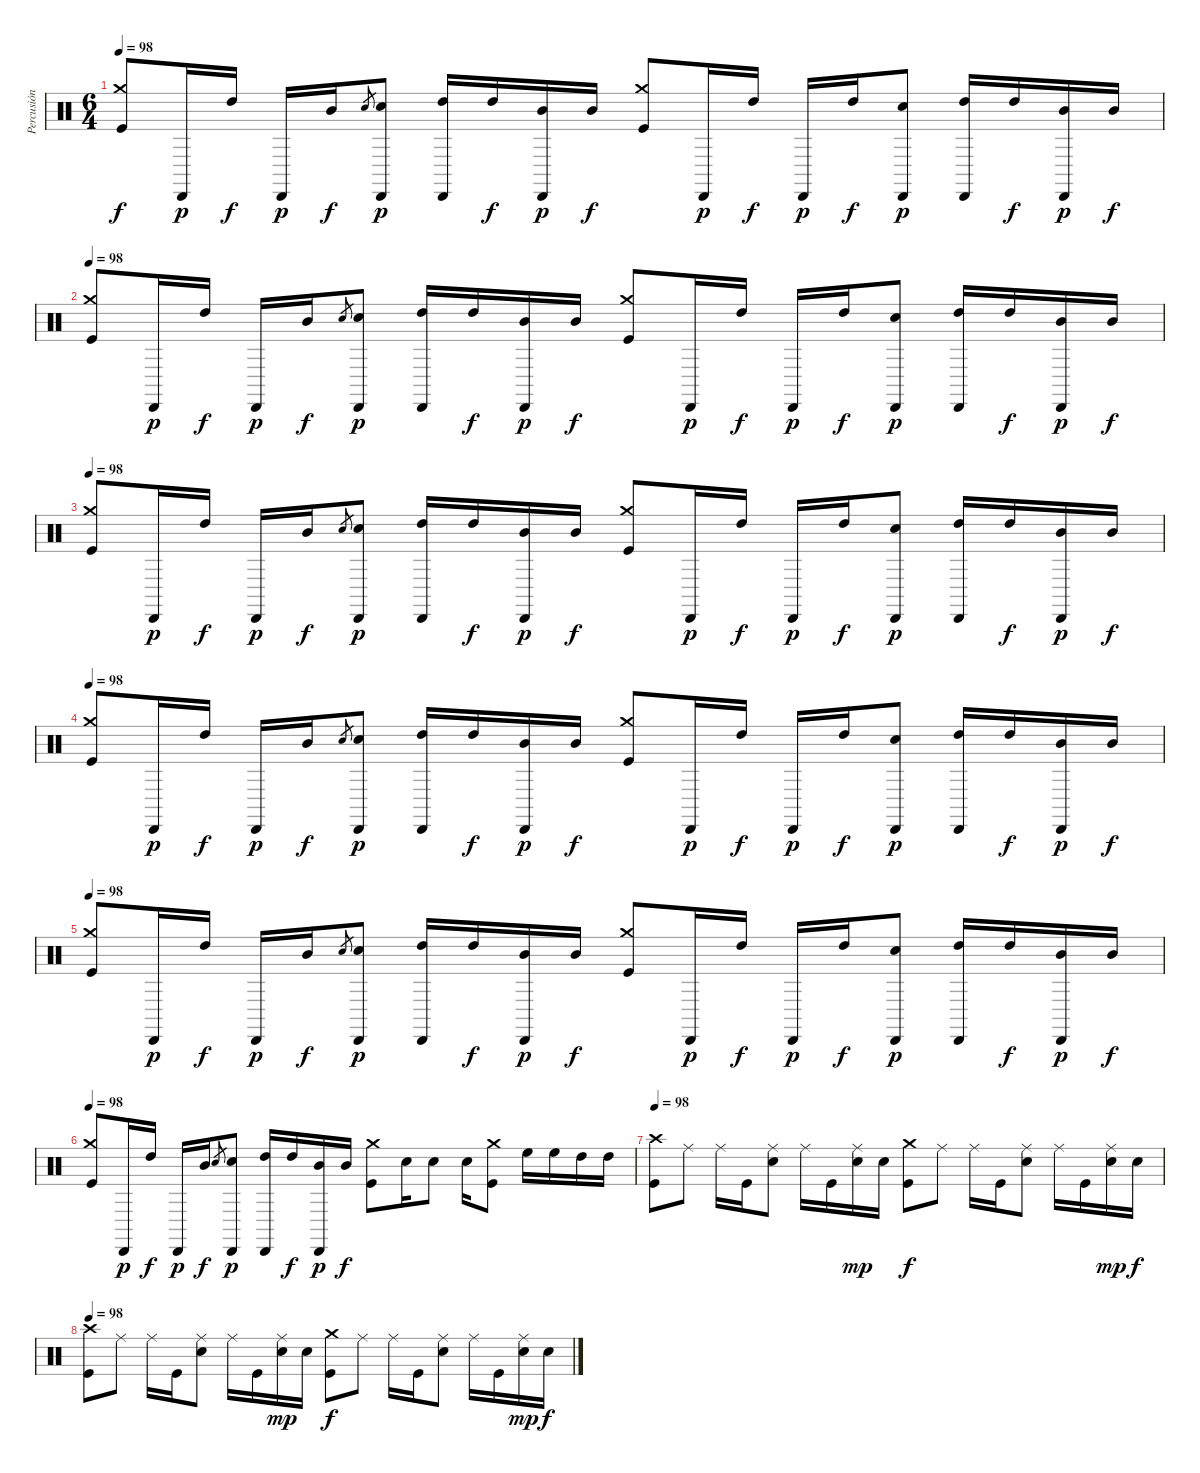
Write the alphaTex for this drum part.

\track ("Percusión" "Percusión") {instrument percussion}
\staff {score}
\articulation defaults
\ts (6 4)
\tempo 98
\clef neutral
\ks c
("Crash medium (hit)" "Kick (hit)").8{dy f} "Cabasa (hit)".16{dy p} "High Tom (hit)".16{dy f} "Cabasa (hit)".16{dy p} "Mid Tom (hit)".16{dy f} "Electric Snare (hit)".8{gr} ("Cabasa (hit)" "Electric Snare (hit)").8{dy p} ("Cabasa (hit)" "High Tom (hit)").16 "High Tom (hit)".16{dy f} ("Cabasa (hit)" "Mid Tom (hit)").16{dy p} "Mid Tom (hit)".16{dy f} ("Crash medium (hit)" "Kick (hit)").8 "Cabasa (hit)".16{dy p} "High Tom (hit)".16{dy f} "Cabasa (hit)".16{dy p} "High Tom (hit)".16{dy f} ("Cabasa (hit)" "Electric Snare (hit)").8{dy p} ("Cabasa (hit)" "High Tom (hit)").16 "High Tom (hit)".16{dy f} ("Cabasa (hit)" "Mid Tom (hit)").16{dy p} "Mid Tom (hit)".16{dy f} |
\tempo 98
("Crash medium (hit)" "Kick (hit)").8 "Cabasa (hit)".16{dy p} "High Tom (hit)".16{dy f} "Cabasa (hit)".16{dy p} "Mid Tom (hit)".16{dy f} "Electric Snare (hit)".8{gr} ("Cabasa (hit)" "Electric Snare (hit)").8{dy p} ("Cabasa (hit)" "High Tom (hit)").16 "High Tom (hit)".16{dy f} ("Cabasa (hit)" "Mid Tom (hit)").16{dy p} "Mid Tom (hit)".16{dy f} ("Crash medium (hit)" "Kick (hit)").8 "Cabasa (hit)".16{dy p} "High Tom (hit)".16{dy f} "Cabasa (hit)".16{dy p} "High Tom (hit)".16{dy f} ("Cabasa (hit)" "Electric Snare (hit)").8{dy p} ("Cabasa (hit)" "High Tom (hit)").16 "High Tom (hit)".16{dy f} ("Cabasa (hit)" "Mid Tom (hit)").16{dy p} "Mid Tom (hit)".16{dy f} |
\tempo 98
("Crash medium (hit)" "Kick (hit)").8 "Cabasa (hit)".16{dy p} "High Tom (hit)".16{dy f} "Cabasa (hit)".16{dy p} "Mid Tom (hit)".16{dy f} "Electric Snare (hit)".8{gr} ("Cabasa (hit)" "Electric Snare (hit)").8{dy p} ("Cabasa (hit)" "High Tom (hit)").16 "High Tom (hit)".16{dy f} ("Cabasa (hit)" "Mid Tom (hit)").16{dy p} "Mid Tom (hit)".16{dy f} ("Crash medium (hit)" "Kick (hit)").8 "Cabasa (hit)".16{dy p} "High Tom (hit)".16{dy f} "Cabasa (hit)".16{dy p} "High Tom (hit)".16{dy f} ("Cabasa (hit)" "Electric Snare (hit)").8{dy p} ("Cabasa (hit)" "High Tom (hit)").16 "High Tom (hit)".16{dy f} ("Cabasa (hit)" "Mid Tom (hit)").16{dy p} "Mid Tom (hit)".16{dy f} |
\tempo 98
("Crash medium (hit)" "Kick (hit)").8 "Cabasa (hit)".16{dy p} "High Tom (hit)".16{dy f} "Cabasa (hit)".16{dy p} "Mid Tom (hit)".16{dy f} "Electric Snare (hit)".8{gr} ("Cabasa (hit)" "Electric Snare (hit)").8{dy p} ("Cabasa (hit)" "High Tom (hit)").16 "High Tom (hit)".16{dy f} ("Cabasa (hit)" "Mid Tom (hit)").16{dy p} "Mid Tom (hit)".16{dy f} ("Crash medium (hit)" "Kick (hit)").8 "Cabasa (hit)".16{dy p} "High Tom (hit)".16{dy f} "Cabasa (hit)".16{dy p} "High Tom (hit)".16{dy f} ("Cabasa (hit)" "Electric Snare (hit)").8{dy p} ("Cabasa (hit)" "High Tom (hit)").16 "High Tom (hit)".16{dy f} ("Cabasa (hit)" "Mid Tom (hit)").16{dy p} "Mid Tom (hit)".16{dy f} |
\tempo 98
("Crash medium (hit)" "Kick (hit)").8 "Cabasa (hit)".16{dy p} "High Tom (hit)".16{dy f} "Cabasa (hit)".16{dy p} "Mid Tom (hit)".16{dy f} "Electric Snare (hit)".8{gr} ("Cabasa (hit)" "Electric Snare (hit)").8{dy p} ("Cabasa (hit)" "High Tom (hit)").16 "High Tom (hit)".16{dy f} ("Cabasa (hit)" "Mid Tom (hit)").16{dy p} "Mid Tom (hit)".16{dy f} ("Crash medium (hit)" "Kick (hit)").8 "Cabasa (hit)".16{dy p} "High Tom (hit)".16{dy f} "Cabasa (hit)".16{dy p} "High Tom (hit)".16{dy f} ("Cabasa (hit)" "Electric Snare (hit)").8{dy p} ("Cabasa (hit)" "High Tom (hit)").16 "High Tom (hit)".16{dy f} ("Cabasa (hit)" "Mid Tom (hit)").16{dy p} "Mid Tom (hit)".16{dy f} |
\tempo 98
("Crash medium (hit)" "Kick (hit)").8 "Cabasa (hit)".16{dy p} "High Tom (hit)".16{dy f} "Cabasa (hit)".16{dy p} "Mid Tom (hit)".16{dy f} "Electric Snare (hit)".8{gr} ("Cabasa (hit)" "Electric Snare (hit)").8{dy p} ("Cabasa (hit)" "High Tom (hit)").16 "High Tom (hit)".16{dy f} ("Cabasa (hit)" "Mid Tom (hit)").16{dy p} "Mid Tom (hit)".16{dy f} ("Crash medium (hit)" "Kick (hit)").8 "Electric Snare (hit)".16 "Electric Snare (hit)".8 "Electric Snare (hit)".16 ("Crash medium (hit)" "Kick (hit)").8 "High Floor Tom (hit)".16 "High Floor Tom (hit)".16 "High Tom (hit)".16 "High Tom (hit)".16 |
\tempo 98
("Crash high (hit)" "Kick (hit)").8 "Ride (middle)".8 "Ride (middle)".16 "Kick (hit)".16 ("Ride (middle)" "Electric Snare (hit)").8 "Ride (middle)".16 "Kick (hit)".16 ("Ride (middle)" "Electric Snare (hit)").16{dy mp} "Electric Snare (hit)".16 ("Crash medium (hit)" "Kick (hit)").8{dy f} "Ride (middle)".8 "Ride (middle)".16 "Kick (hit)".16 ("Ride (middle)" "Electric Snare (hit)").8 "Ride (middle)".16 "Kick (hit)".16 ("Ride (middle)" "Electric Snare (hit)").16{dy mp} "Electric Snare (hit)".16{dy f} |
\tempo 98
("Crash high (hit)" "Kick (hit)").8 "Ride (middle)".8 "Ride (middle)".16 "Kick (hit)".16 ("Ride (middle)" "Electric Snare (hit)").8 "Ride (middle)".16 "Kick (hit)".16 ("Ride (middle)" "Electric Snare (hit)").16{dy mp} "Electric Snare (hit)".16 ("Crash medium (hit)" "Kick (hit)").8{dy f} "Ride (middle)".8 "Ride (middle)".16 "Kick (hit)".16 ("Ride (middle)" "Electric Snare (hit)").8 "Ride (middle)".16 "Kick (hit)".16 ("Ride (middle)" "Electric Snare (hit)").16{dy mp} "Electric Snare (hit)".16{dy f}
